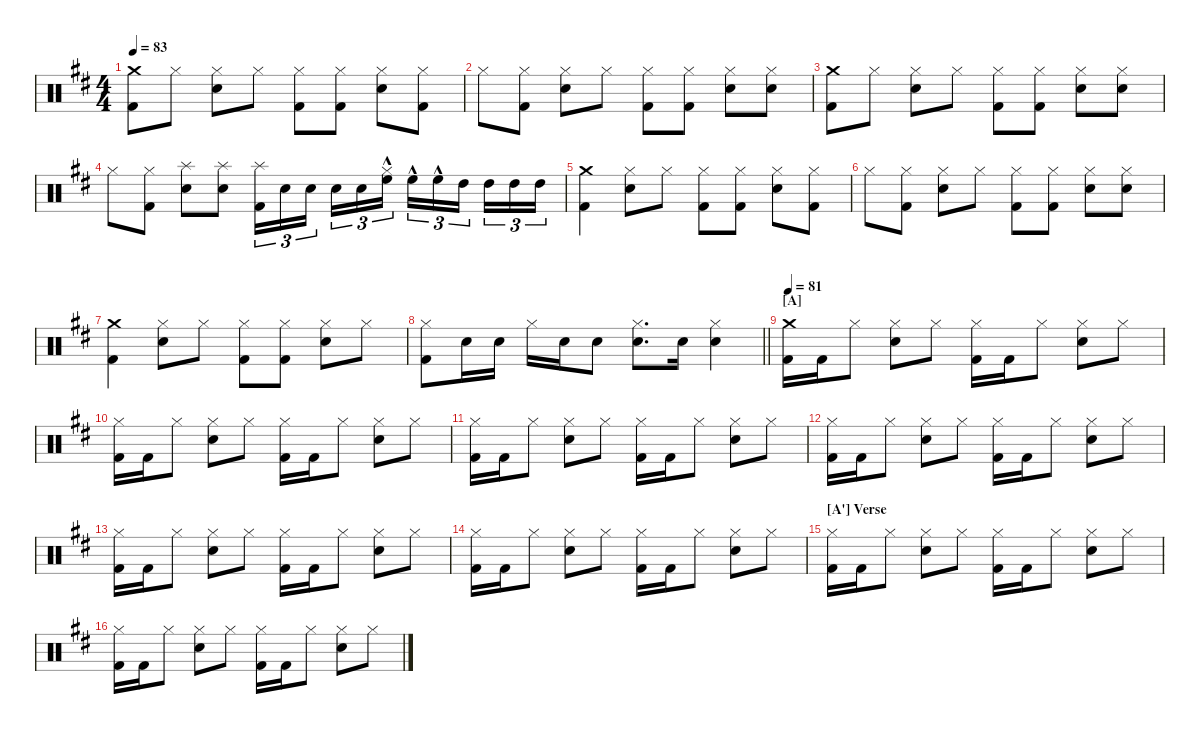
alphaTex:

\defaultSystemsLayout 4
\hideDynamics
\bracketExtendMode nobrackets
\singleTrackTrackNamePolicy hidden
\multiTrackTrackNamePolicy hidden
\otherSystemsTrackNameOrientation horizontal
\track ("Drumkit" "Drums") {defaultSystemsLayout 4 instrument percussion}
\staff {score}
\articulation defaults
\ts (4 4)
\tempo 83
\clef neutral
\ks d
("Kick (hit) 2"{acc forcenatural} "Crash medium (hit)"{acc forcenatural}).8{dy f beam Down} "Hi-Hat (closed)"{acc forcenatural}.8{beam Down} ("Snare (hit) 2"{acc forcenatural} "Hi-Hat (closed)"{acc forcenatural}).8{beam Down} "Hi-Hat (closed)"{acc forcenatural}.8{beam Down} ("Kick (hit) 2"{acc forcenatural} "Hi-Hat (closed)"{acc forcenatural}).8{beam Down} ("Kick (hit) 2"{acc forcenatural} "Hi-Hat (closed)"{acc forcenatural}).8{beam Down} ("Snare (hit) 2"{acc forcenatural} "Hi-Hat (closed)"{acc forcenatural}).8{beam Down} ("Kick (hit) 2"{acc forcenatural} "Hi-Hat (closed)"{acc forcenatural}).8{beam Down} |
"Hi-Hat (closed)"{acc forcenatural}.8{beam Down} ("Kick (hit) 2"{acc forcenatural} "Hi-Hat (closed)"{acc forcenatural}).8{beam Down} ("Snare (hit) 2"{acc forcenatural} "Hi-Hat (closed)"{acc forcenatural}).8{beam Down} "Hi-Hat (closed)"{acc forcenatural}.8{beam Down} ("Kick (hit) 2"{acc forcenatural} "Hi-Hat (closed)"{acc forcenatural}).8{beam Down} ("Kick (hit) 2"{acc forcenatural} "Hi-Hat (closed)"{acc forcenatural}).8{beam Down} ("Snare (hit) 2"{acc forcenatural} "Hi-Hat (closed)"{acc forcenatural}).8{beam Down} ("Snare (hit) 2"{acc forcenatural} "Hi-Hat (closed)"{acc forcenatural}).8{beam Down} |
("Kick (hit) 2"{acc forcenatural} "Crash medium (hit)"{acc forcenatural}).8{beam Down} "Hi-Hat (closed)"{acc forcenatural}.8{beam Down} ("Snare (hit) 2"{acc forcenatural} "Hi-Hat (closed)"{acc forcenatural}).8{beam Down} "Hi-Hat (closed)"{acc forcenatural}.8{beam Down} ("Kick (hit) 2"{acc forcenatural} "Hi-Hat (closed)"{acc forcenatural}).8{beam Down} ("Kick (hit) 2"{acc forcenatural} "Hi-Hat (closed)"{acc forcenatural}).8{beam Down} ("Snare (hit) 2"{acc forcenatural} "Hi-Hat (closed)"{acc forcenatural}).8{beam Down} ("Snare (hit) 2"{acc forcenatural} "Hi-Hat (closed)"{acc forcenatural}).8{beam Down} |
"Hi-Hat (closed)"{acc forcenatural}.8{beam Down} ("Kick (hit) 2"{acc forcenatural} "Hi-Hat (closed)"{acc forcenatural}).8{beam Down} ("Snare (hit) 2"{acc forcenatural} "Splash (hit)"{acc forcenatural}).8{beam Down} ("Snare (hit) 2"{acc forcenatural} "Splash (hit)"{acc forcenatural}).8{beam Down} ("Kick (hit) 2"{acc forcenatural} "Splash (hit)"{acc forcenatural}).16{tu (3 2) beam Down} "Snare (hit) 2"{acc forcenatural}.16{tu (3 2) beam Down} "Snare (hit) 2"{acc forcenatural}.16{tu (3 2) beam Down} "Snare (hit) 2"{acc forcenatural}.16{tu (3 2) beam Down} "Snare (hit) 2"{acc forcenatural}.16{tu (3 2) beam Down} ("High Floor Tom (hit)"{hac acc forcenatural} "Hi-Hat (closed)"{hac acc forcenatural}).16{tu (3 2) beam Down} "High Floor Tom (hit)"{hac acc forcenatural}.16{tu (3 2) beam Down} "High Floor Tom (hit)"{hac acc forcenatural}.16{tu (3 2) beam Down} "High Tom (hit)"{acc forcenatural}.16{tu (3 2) beam Down} "High Tom (hit)"{acc forcenatural}.16{tu (3 2) beam Down} "High Tom (hit)"{acc forcenatural}.16{tu (3 2) beam Down} "High Tom (hit)"{acc forcenatural}.16{tu (3 2) beam Down} |
("Kick (hit) 2"{acc forcenatural} "Crash medium (hit)"{acc forcenatural}).4{beam Down} ("Snare (hit) 2"{acc forcenatural} "Hi-Hat (closed)"{acc forcenatural}).8{beam Down} "Hi-Hat (closed)"{acc forcenatural}.8{beam Down} ("Kick (hit) 2"{acc forcenatural} "Hi-Hat (closed)"{acc forcenatural}).8{beam Down} ("Kick (hit) 2"{acc forcenatural} "Hi-Hat (closed)"{acc forcenatural}).8{beam Down} ("Snare (hit) 2"{acc forcenatural} "Hi-Hat (closed)"{acc forcenatural}).8{beam Down} ("Kick (hit) 2"{acc forcenatural} "Hi-Hat (closed)"{acc forcenatural}).8{beam Down} |
"Hi-Hat (closed)"{acc forcenatural}.8{beam Down} ("Kick (hit) 2"{acc forcenatural} "Hi-Hat (closed)"{acc forcenatural}).8{beam Down} ("Snare (hit) 2"{acc forcenatural} "Hi-Hat (closed)"{acc forcenatural}).8{beam Down} "Hi-Hat (closed)"{acc forcenatural}.8{beam Down} ("Kick (hit) 2"{acc forcenatural} "Hi-Hat (closed)"{acc forcenatural}).8{beam Down} ("Kick (hit) 2"{acc forcenatural} "Hi-Hat (closed)"{acc forcenatural}).8{beam Down} ("Snare (hit) 2"{acc forcenatural} "Hi-Hat (closed)"{acc forcenatural}).8{beam Down} ("Snare (hit) 2"{acc forcenatural} "Hi-Hat (closed)"{acc forcenatural}).8{beam Down} |
("Kick (hit) 2"{acc forcenatural} "Crash medium (hit)"{acc forcenatural}).4{beam Down} ("Snare (hit) 2"{acc forcenatural} "Hi-Hat (closed)"{acc forcenatural}).8{beam Down} "Hi-Hat (closed)"{acc forcenatural}.8{beam Down} ("Kick (hit) 2"{acc forcenatural} "Hi-Hat (closed)"{acc forcenatural}).8{beam Down} ("Kick (hit) 2"{acc forcenatural} "Hi-Hat (closed)"{acc forcenatural}).8{beam Down} ("Snare (hit) 2"{acc forcenatural} "Hi-Hat (closed)"{acc forcenatural}).8{beam Down} "Hi-Hat (closed)"{acc forcenatural}.8{beam Down} |
\barLineRight lightlight
("Kick (hit) 2"{acc forcenatural} "Hi-Hat (closed)"{acc forcenatural}).8{dy ff beam Down} "Snare (hit) 2"{acc forcenatural}.16{dy f beam Down} "Snare (hit) 2"{acc forcenatural}.16{dy mf beam Down} "Hi-Hat (closed)"{acc forcenatural}.16{dy f beam Down} "Snare (hit) 2"{acc forcenatural}.16{dy mf beam Down} "Snare (hit) 2"{acc forcenatural}.8{dy f beam Down} ("Snare (hit) 2"{acc forcenatural} "Hi-Hat (closed)"{acc forcenatural}).8{d dy ff beam Down} "Snare (hit) 2"{acc forcenatural}.16{dy f beam Down} ("Snare (hit) 2"{acc forcenatural} "Hi-Hat (closed)"{acc forcenatural}).4{dy fff beam Down} |
\section ("A" "")
\tempo 81
("Kick (hit) 2"{acc forcenatural} "Crash medium (hit)"{acc forcenatural}).16{dy f beam Down} "Kick (hit) 2"{acc forcenatural}.16{beam Down} "Hi-Hat (closed)"{acc forcenatural}.8{beam Down} ("Snare (hit) 2"{acc forcenatural} "Hi-Hat (closed)"{acc forcenatural}).8{beam Down} "Hi-Hat (closed)"{acc forcenatural}.8{beam Down} ("Kick (hit) 2"{acc forcenatural} "Hi-Hat (closed)"{acc forcenatural}).16{beam Down} "Kick (hit) 2"{acc forcenatural}.16{beam Down} "Hi-Hat (closed)"{acc forcenatural}.8{beam Down} ("Snare (hit) 2"{acc forcenatural} "Hi-Hat (closed)"{acc forcenatural}).8{beam Down} "Hi-Hat (closed)"{acc forcenatural}.8{beam Down} |
("Kick (hit) 2"{acc forcenatural} "Hi-Hat (closed)"{acc forcenatural}).16{beam Down} "Kick (hit) 2"{acc forcenatural}.16{beam Down} "Hi-Hat (closed)"{acc forcenatural}.8{beam Down} ("Snare (hit) 2"{acc forcenatural} "Hi-Hat (closed)"{acc forcenatural}).8{beam Down} "Hi-Hat (closed)"{acc forcenatural}.8{beam Down} ("Kick (hit) 2"{acc forcenatural} "Hi-Hat (closed)"{acc forcenatural}).16{beam Down} "Kick (hit) 2"{acc forcenatural}.16{beam Down} "Hi-Hat (closed)"{acc forcenatural}.8{beam Down} ("Snare (hit) 2"{acc forcenatural} "Hi-Hat (closed)"{acc forcenatural}).8{beam Down} "Hi-Hat (closed)"{acc forcenatural}.8{beam Down} |
("Kick (hit) 2"{acc forcenatural} "Hi-Hat (closed)"{acc forcenatural}).16{beam Down} "Kick (hit) 2"{acc forcenatural}.16{beam Down} "Hi-Hat (closed)"{acc forcenatural}.8{beam Down} ("Snare (hit) 2"{acc forcenatural} "Hi-Hat (closed)"{acc forcenatural}).8{beam Down} "Hi-Hat (closed)"{acc forcenatural}.8{beam Down} ("Kick (hit) 2"{acc forcenatural} "Hi-Hat (closed)"{acc forcenatural}).16{beam Down} "Kick (hit) 2"{acc forcenatural}.16{beam Down} "Hi-Hat (closed)"{acc forcenatural}.8{beam Down} ("Snare (hit) 2"{acc forcenatural} "Hi-Hat (closed)"{acc forcenatural}).8{beam Down} "Hi-Hat (closed)"{acc forcenatural}.8{beam Down} |
("Kick (hit) 2"{acc forcenatural} "Hi-Hat (closed)"{acc forcenatural}).16{beam Down} "Kick (hit) 2"{acc forcenatural}.16{beam Down} "Hi-Hat (closed)"{acc forcenatural}.8{beam Down} ("Snare (hit) 2"{acc forcenatural} "Hi-Hat (closed)"{acc forcenatural}).8{beam Down} "Hi-Hat (closed)"{acc forcenatural}.8{beam Down} ("Kick (hit) 2"{acc forcenatural} "Hi-Hat (closed)"{acc forcenatural}).16{beam Down} "Kick (hit) 2"{acc forcenatural}.16{beam Down} "Hi-Hat (closed)"{acc forcenatural}.8{beam Down} ("Snare (hit) 2"{acc forcenatural} "Hi-Hat (closed)"{acc forcenatural}).8{beam Down} "Hi-Hat (closed)"{acc forcenatural}.8{beam Down} |
("Kick (hit) 2"{acc forcenatural} "Hi-Hat (closed)"{acc forcenatural}).16{beam Down} "Kick (hit) 2"{acc forcenatural}.16{beam Down} "Hi-Hat (closed)"{acc forcenatural}.8{beam Down} ("Snare (hit) 2"{acc forcenatural} "Hi-Hat (closed)"{acc forcenatural}).8{beam Down} "Hi-Hat (closed)"{acc forcenatural}.8{beam Down} ("Kick (hit) 2"{acc forcenatural} "Hi-Hat (closed)"{acc forcenatural}).16{beam Down} "Kick (hit) 2"{acc forcenatural}.16{beam Down} "Hi-Hat (closed)"{acc forcenatural}.8{beam Down} ("Snare (hit) 2"{acc forcenatural} "Hi-Hat (closed)"{acc forcenatural}).8{beam Down} "Hi-Hat (closed)"{acc forcenatural}.8{beam Down} |
("Kick (hit) 2"{acc forcenatural} "Hi-Hat (closed)"{acc forcenatural}).16{beam Down} "Kick (hit) 2"{acc forcenatural}.16{beam Down} "Hi-Hat (closed)"{acc forcenatural}.8{beam Down} ("Snare (hit) 2"{acc forcenatural} "Hi-Hat (closed)"{acc forcenatural}).8{beam Down} "Hi-Hat (closed)"{acc forcenatural}.8{beam Down} ("Kick (hit) 2"{acc forcenatural} "Hi-Hat (closed)"{acc forcenatural}).16{beam Down} "Kick (hit) 2"{acc forcenatural}.16{beam Down} "Hi-Hat (closed)"{acc forcenatural}.8{beam Down} ("Snare (hit) 2"{acc forcenatural} "Hi-Hat (closed)"{acc forcenatural}).8{beam Down} "Hi-Hat (closed)"{acc forcenatural}.8{beam Down} |
\section ("A'" "Verse")
("Kick (hit) 2"{acc forcenatural} "Hi-Hat (closed)"{acc forcenatural}).16{beam Down} "Kick (hit) 2"{acc forcenatural}.16{beam Down} "Hi-Hat (closed)"{acc forcenatural}.8{beam Down} ("Snare (hit) 2"{acc forcenatural} "Hi-Hat (closed)"{acc forcenatural}).8{beam Down} "Hi-Hat (closed)"{acc forcenatural}.8{beam Down} ("Kick (hit) 2"{acc forcenatural} "Hi-Hat (closed)"{acc forcenatural}).16{beam Down} "Kick (hit) 2"{acc forcenatural}.16{beam Down} "Hi-Hat (closed)"{acc forcenatural}.8{beam Down} ("Snare (hit) 2"{acc forcenatural} "Hi-Hat (closed)"{acc forcenatural}).8{beam Down} "Hi-Hat (closed)"{acc forcenatural}.8{beam Down} |
("Kick (hit) 2"{acc forcenatural} "Hi-Hat (closed)"{acc forcenatural}).16{beam Down} "Kick (hit) 2"{acc forcenatural}.16{beam Down} "Hi-Hat (closed)"{acc forcenatural}.8{beam Down} ("Snare (hit) 2"{acc forcenatural} "Hi-Hat (closed)"{acc forcenatural}).8{beam Down} "Hi-Hat (closed)"{acc forcenatural}.8{beam Down} ("Kick (hit) 2"{acc forcenatural} "Hi-Hat (closed)"{acc forcenatural}).16{beam Down} "Kick (hit) 2"{acc forcenatural}.16{beam Down} "Hi-Hat (closed)"{acc forcenatural}.8{beam Down} ("Snare (hit) 2"{acc forcenatural} "Hi-Hat (closed)"{acc forcenatural}).8{beam Down} "Hi-Hat (closed)"{acc forcenatural}.8{beam Down}
